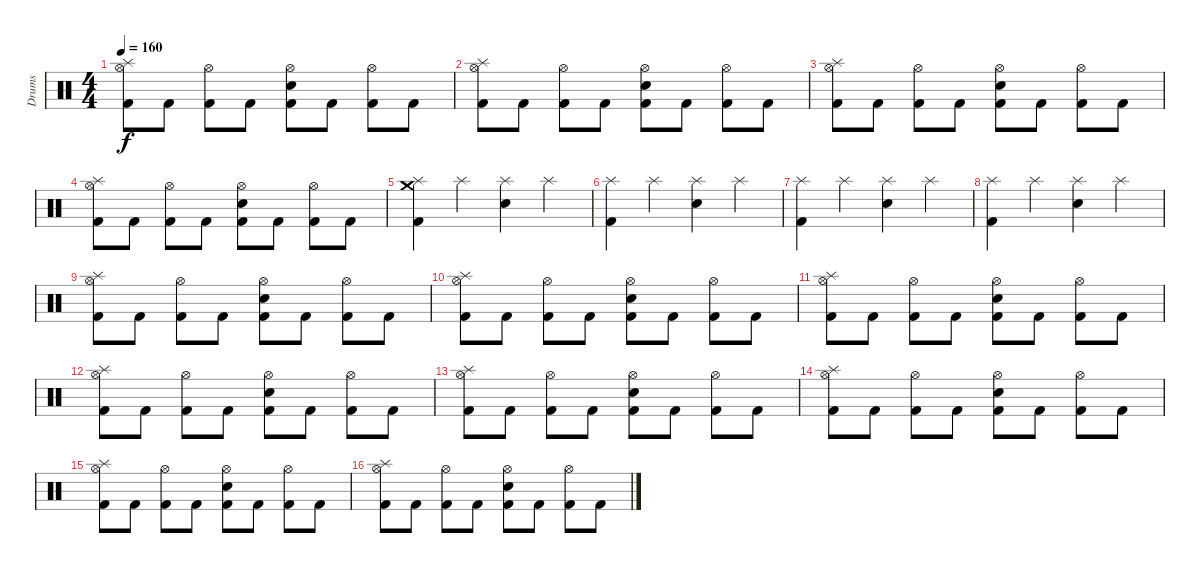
\track ("Drums" "Drums") {instrument percussion}
\staff {score}
\articulation defaults
\ts (4 4)
\tempo 160
\clef neutral
\ks c
("Hi-Hat (open)" "Splash (hit)" "Kick (hit) 2").8{dy f} "Kick (hit) 2".8 ("Hi-Hat (open)" "Kick (hit) 2").8 "Kick (hit) 2".8 ("Hi-Hat (open)" "Snare (hit) 2" "Kick (hit) 2").8 "Kick (hit) 2".8 ("Hi-Hat (open)" "Kick (hit) 2").8 "Kick (hit) 2".8 |
("Hi-Hat (open)" "Splash (hit)" "Kick (hit) 2").8 "Kick (hit) 2".8 ("Hi-Hat (open)" "Kick (hit) 2").8 "Kick (hit) 2".8 ("Hi-Hat (open)" "Snare (hit) 2" "Kick (hit) 2").8 "Kick (hit) 2".8 ("Hi-Hat (open)" "Kick (hit) 2").8 "Kick (hit) 2".8 |
("Hi-Hat (open)" "Splash (hit)" "Kick (hit) 2").8 "Kick (hit) 2".8 ("Hi-Hat (open)" "Kick (hit) 2").8 "Kick (hit) 2".8 ("Hi-Hat (open)" "Snare (hit) 2" "Kick (hit) 2").8 "Kick (hit) 2".8 ("Hi-Hat (open)" "Kick (hit) 2").8 "Kick (hit) 2".8 |
("Hi-Hat (open)" "Splash (hit)" "Kick (hit) 2").8 "Kick (hit) 2".8 ("Hi-Hat (open)" "Kick (hit) 2").8 "Kick (hit) 2".8 ("Hi-Hat (open)" "Snare (hit) 2" "Kick (hit) 2").8 "Kick (hit) 2".8 ("Hi-Hat (open)" "Kick (hit) 2").8 "Kick (hit) 2".8 |
("Splash (hit)" "Crash medium (hit)" "Kick (hit) 2").4 "Splash (hit)".4 ("Splash (hit)" "Snare (hit) 2").4 "Splash (hit)".4 |
("Splash (hit)" "Kick (hit) 2").4 "Splash (hit)".4 ("Splash (hit)" "Snare (hit) 2").4 "Splash (hit)".4 |
("Splash (hit)" "Kick (hit) 2").4 "Splash (hit)".4 ("Splash (hit)" "Snare (hit) 2").4 "Splash (hit)".4 |
("Splash (hit)" "Kick (hit) 2").4 "Splash (hit)".4 ("Splash (hit)" "Snare (hit) 2").4 "Splash (hit)".4 |
("Hi-Hat (open)" "Splash (hit)" "Kick (hit) 2").8 "Kick (hit) 2".8 ("Hi-Hat (open)" "Kick (hit) 2").8 "Kick (hit) 2".8 ("Hi-Hat (open)" "Snare (hit) 2" "Kick (hit) 2").8 "Kick (hit) 2".8 ("Hi-Hat (open)" "Kick (hit) 2").8 "Kick (hit) 2".8 |
("Hi-Hat (open)" "Splash (hit)" "Kick (hit) 2").8 "Kick (hit) 2".8 ("Hi-Hat (open)" "Kick (hit) 2").8 "Kick (hit) 2".8 ("Hi-Hat (open)" "Snare (hit) 2" "Kick (hit) 2").8 "Kick (hit) 2".8 ("Hi-Hat (open)" "Kick (hit) 2").8 "Kick (hit) 2".8 |
("Hi-Hat (open)" "Splash (hit)" "Kick (hit) 2").8 "Kick (hit) 2".8 ("Hi-Hat (open)" "Kick (hit) 2").8 "Kick (hit) 2".8 ("Hi-Hat (open)" "Snare (hit) 2" "Kick (hit) 2").8 "Kick (hit) 2".8 ("Hi-Hat (open)" "Kick (hit) 2").8 "Kick (hit) 2".8 |
("Hi-Hat (open)" "Splash (hit)" "Kick (hit) 2").8 "Kick (hit) 2".8 ("Hi-Hat (open)" "Kick (hit) 2").8 "Kick (hit) 2".8 ("Hi-Hat (open)" "Snare (hit) 2" "Kick (hit) 2").8 "Kick (hit) 2".8 ("Hi-Hat (open)" "Kick (hit) 2").8 "Kick (hit) 2".8 |
("Hi-Hat (open)" "Splash (hit)" "Kick (hit) 2").8 "Kick (hit) 2".8 ("Hi-Hat (open)" "Kick (hit) 2").8 "Kick (hit) 2".8 ("Hi-Hat (open)" "Snare (hit) 2" "Kick (hit) 2").8 "Kick (hit) 2".8 ("Hi-Hat (open)" "Kick (hit) 2").8 "Kick (hit) 2".8 |
("Hi-Hat (open)" "Splash (hit)" "Kick (hit) 2").8 "Kick (hit) 2".8 ("Hi-Hat (open)" "Kick (hit) 2").8 "Kick (hit) 2".8 ("Hi-Hat (open)" "Snare (hit) 2" "Kick (hit) 2").8 "Kick (hit) 2".8 ("Hi-Hat (open)" "Kick (hit) 2").8 "Kick (hit) 2".8 |
("Hi-Hat (open)" "Splash (hit)" "Kick (hit) 2").8 "Kick (hit) 2".8 ("Hi-Hat (open)" "Kick (hit) 2").8 "Kick (hit) 2".8 ("Hi-Hat (open)" "Snare (hit) 2" "Kick (hit) 2").8 "Kick (hit) 2".8 ("Hi-Hat (open)" "Kick (hit) 2").8 "Kick (hit) 2".8 |
("Hi-Hat (open)" "Splash (hit)" "Kick (hit) 2").8 "Kick (hit) 2".8 ("Hi-Hat (open)" "Kick (hit) 2").8 "Kick (hit) 2".8 ("Hi-Hat (open)" "Snare (hit) 2" "Kick (hit) 2").8 "Kick (hit) 2".8 ("Hi-Hat (open)" "Kick (hit) 2").8 "Kick (hit) 2".8
